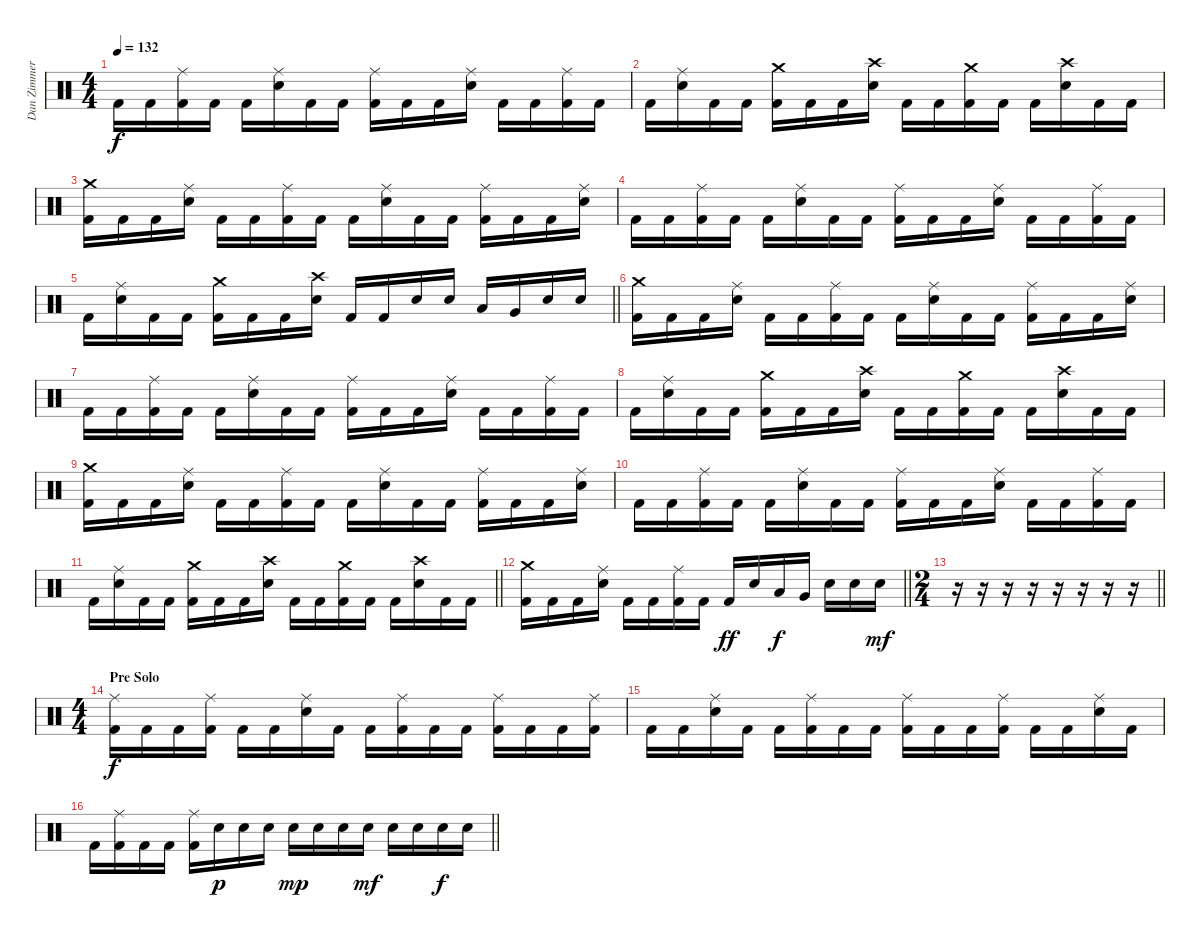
\track ("Dan Zimmermann" "Dan Zimmer") {instrument percussion}
\staff {score}
\articulation defaults
\ts (4 4)
\tempo 132
\clef neutral
\ks c "Kick (hit) 2".16{dy f} "Kick (hit) 2".16
("Ride (middle)" "Kick (hit) 2").16 "Kick (hit) 2".16 "Kick (hit) 2".16 ("Ride (middle)" "Electric Snare (hit)").16 "Kick (hit) 2".16 "Kick (hit) 2".16 ("Ride (middle)" "Kick (hit) 2").16 "Kick (hit) 2".16 "Kick (hit) 2".16 ("Ride (middle)" "Electric Snare (hit)").16 "Kick (hit) 2".16 "Kick (hit) 2".16 ("Ride (middle)" "Kick (hit) 2").16 "Kick (hit) 2".16 |
"Kick (hit) 2".16 ("Ride (middle)" "Electric Snare (hit)").16 "Kick (hit) 2".16 "Kick (hit) 2".16 ("Crash medium (hit)" "Kick (hit) 2").16 "Kick (hit) 2".16 "Kick (hit) 2".16 ("Crash high (hit)" "Electric Snare (hit)").16 "Kick (hit) 2".16 "Kick (hit) 2".16 ("Crash medium (hit)" "Kick (hit) 2").16 "Kick (hit) 2".16 "Kick (hit) 2".16 ("Crash high (hit)" "Electric Snare (hit)").16 "Kick (hit) 2".16 "Kick (hit) 2".16 |
("Crash medium (hit)" "Kick (hit) 2").16 "Kick (hit) 2".16 "Kick (hit) 2".16 ("Ride (middle)" "Electric Snare (hit)").16 "Kick (hit) 2".16 "Kick (hit) 2".16 ("Ride (middle)" "Kick (hit) 2").16 "Kick (hit) 2".16 "Kick (hit) 2".16 ("Ride (middle)" "Electric Snare (hit)").16 "Kick (hit) 2".16 "Kick (hit) 2".16 ("Ride (middle)" "Kick (hit) 2").16 "Kick (hit) 2".16 "Kick (hit) 2".16 ("Ride (middle)" "Electric Snare (hit)").16 |
"Kick (hit) 2".16 "Kick (hit) 2".16 ("Ride (middle)" "Kick (hit) 2").16 "Kick (hit) 2".16 "Kick (hit) 2".16 ("Ride (middle)" "Electric Snare (hit)").16 "Kick (hit) 2".16 "Kick (hit) 2".16 ("Ride (middle)" "Kick (hit) 2").16 "Kick (hit) 2".16 "Kick (hit) 2".16 ("Ride (middle)" "Electric Snare (hit)").16 "Kick (hit) 2".16 "Kick (hit) 2".16 ("Ride (middle)" "Kick (hit) 2").16 "Kick (hit) 2".16 |
\barLineRight lightlight "Kick (hit) 2".16
("Ride (middle)" "Electric Snare (hit)").16 "Kick (hit) 2".16 "Kick (hit) 2".16 ("Crash medium (hit)" "Kick (hit) 2").16 "Kick (hit) 2".16 "Kick (hit) 2".16 ("Crash high (hit)" "Electric Snare (hit)").16 "Kick (hit) 2".16 "Kick (hit) 2".16 "Electric Snare (hit)".16 "Electric Snare (hit)".16 "Low Tom (hit)".16 "Very Low Tom (hit)".16 "Electric Snare (hit)".16 "Electric Snare (hit)".16 |
("Crash medium (hit)" "Kick (hit) 2").16 "Kick (hit) 2".16 "Kick (hit) 2".16 ("Ride (middle)" "Electric Snare (hit)").16 "Kick (hit) 2".16 "Kick (hit) 2".16 ("Ride (middle)" "Kick (hit) 2").16 "Kick (hit) 2".16 "Kick (hit) 2".16 ("Ride (middle)" "Electric Snare (hit)").16 "Kick (hit) 2".16 "Kick (hit) 2".16 ("Ride (middle)" "Kick (hit) 2").16 "Kick (hit) 2".16 "Kick (hit) 2".16 ("Ride (middle)" "Electric Snare (hit)").16 |
"Kick (hit) 2".16 "Kick (hit) 2".16 ("Ride (middle)" "Kick (hit) 2").16 "Kick (hit) 2".16 "Kick (hit) 2".16 ("Ride (middle)" "Electric Snare (hit)").16 "Kick (hit) 2".16 "Kick (hit) 2".16 ("Ride (middle)" "Kick (hit) 2").16 "Kick (hit) 2".16 "Kick (hit) 2".16 ("Ride (middle)" "Electric Snare (hit)").16 "Kick (hit) 2".16 "Kick (hit) 2".16 ("Ride (middle)" "Kick (hit) 2").16 "Kick (hit) 2".16 |
"Kick (hit) 2".16 ("Ride (middle)" "Electric Snare (hit)").16 "Kick (hit) 2".16 "Kick (hit) 2".16 ("Crash medium (hit)" "Kick (hit) 2").16 "Kick (hit) 2".16 "Kick (hit) 2".16 ("Crash high (hit)" "Electric Snare (hit)").16 "Kick (hit) 2".16 "Kick (hit) 2".16 ("Crash medium (hit)" "Kick (hit) 2").16 "Kick (hit) 2".16 "Kick (hit) 2".16 ("Crash high (hit)" "Electric Snare (hit)").16 "Kick (hit) 2".16 "Kick (hit) 2".16 |
("Crash medium (hit)" "Kick (hit) 2").16 "Kick (hit) 2".16 "Kick (hit) 2".16 ("Ride (middle)" "Electric Snare (hit)").16 "Kick (hit) 2".16 "Kick (hit) 2".16 ("Ride (middle)" "Kick (hit) 2").16 "Kick (hit) 2".16 "Kick (hit) 2".16 ("Ride (middle)" "Electric Snare (hit)").16 "Kick (hit) 2".16 "Kick (hit) 2".16 ("Ride (middle)" "Kick (hit) 2").16 "Kick (hit) 2".16 "Kick (hit) 2".16 ("Ride (middle)" "Electric Snare (hit)").16 |
"Kick (hit) 2".16 "Kick (hit) 2".16 ("Ride (middle)" "Kick (hit) 2").16 "Kick (hit) 2".16 "Kick (hit) 2".16 ("Ride (middle)" "Electric Snare (hit)").16 "Kick (hit) 2".16 "Kick (hit) 2".16 ("Ride (middle)" "Kick (hit) 2").16 "Kick (hit) 2".16 "Kick (hit) 2".16 ("Ride (middle)" "Electric Snare (hit)").16 "Kick (hit) 2".16 "Kick (hit) 2".16 ("Ride (middle)" "Kick (hit) 2").16 "Kick (hit) 2".16 |
\barLineRight lightlight "Kick (hit) 2".16
("Ride (middle)" "Electric Snare (hit)").16 "Kick (hit) 2".16 "Kick (hit) 2".16 ("Crash medium (hit)" "Kick (hit) 2").16 "Kick (hit) 2".16 "Kick (hit) 2".16 ("Crash high (hit)" "Electric Snare (hit)").16 "Kick (hit) 2".16 "Kick (hit) 2".16 ("Crash medium (hit)" "Kick (hit) 2").16 "Kick (hit) 2".16 "Kick (hit) 2".16 ("Crash high (hit)" "Electric Snare (hit)").16 "Kick (hit) 2".16 "Kick (hit) 2".16 |
\barLineRight lightlight
("Crash medium (hit)" "Kick (hit) 2").16 "Kick (hit) 2".16 "Kick (hit) 2".16 ("Ride (middle)" "Electric Snare (hit)").16 "Kick (hit) 2".16 "Kick (hit) 2".16 ("Ride (middle)" "Kick (hit) 2").16 "Kick (hit) 2".16 "Kick (hit) 2".16{dy ff} "Electric Snare (hit)".16 "Low Tom (hit)".16{dy f} "Very Low Tom (hit)".16 "Electric Snare (hit)".16 "Electric Snare (hit)".16 "Electric Snare (hit)".16{dy mf} |
\ts (2 4)
\barLineRight lightlight
r.16 r.16 r.16 r.16 r.16 r.16 r.16 r.16 |
\ts (4 4)
\section ("" "Pre Solo")
("Ride (middle)" "Kick (hit) 2").16{dy f} "Kick (hit) 2".16 "Kick (hit) 2".16 ("Ride (middle)" "Kick (hit) 2").16 "Kick (hit) 2".16 "Kick (hit) 2".16 ("Ride (middle)" "Electric Snare (hit)").16 "Kick (hit) 2".16 "Kick (hit) 2".16 ("Ride (middle)" "Kick (hit) 2").16 "Kick (hit) 2".16 "Kick (hit) 2".16 ("Ride (middle)" "Kick (hit) 2").16 "Kick (hit) 2".16 "Kick (hit) 2".16 ("Ride (middle)" "Kick (hit) 2").16 |
"Kick (hit) 2".16 "Kick (hit) 2".16 ("Ride (middle)" "Electric Snare (hit)").16 "Kick (hit) 2".16 "Kick (hit) 2".16 ("Ride (middle)" "Kick (hit) 2").16 "Kick (hit) 2".16 "Kick (hit) 2".16 ("Ride (middle)" "Kick (hit) 2").16 "Kick (hit) 2".16 "Kick (hit) 2".16 ("Ride (middle)" "Kick (hit) 2").16 "Kick (hit) 2".16 "Kick (hit) 2".16 ("Ride (middle)" "Electric Snare (hit)").16 "Kick (hit) 2".16 |
\barLineRight lightlight "Kick (hit) 2".16
("Ride (middle)" "Kick (hit) 2").16 "Kick (hit) 2".16 "Kick (hit) 2".16 ("Ride (middle)" "Kick (hit) 2").16 "Electric Snare (hit)".16{dy p} "Electric Snare (hit)".16 "Electric Snare (hit)".16 "Electric Snare (hit)".16{dy mp} "Electric Snare (hit)".16 "Electric Snare (hit)".16 "Electric Snare (hit)".16{dy mf} "Electric Snare (hit)".16 "Electric Snare (hit)".16 "Electric Snare (hit)".16{dy f} "Electric Snare (hit)".16
